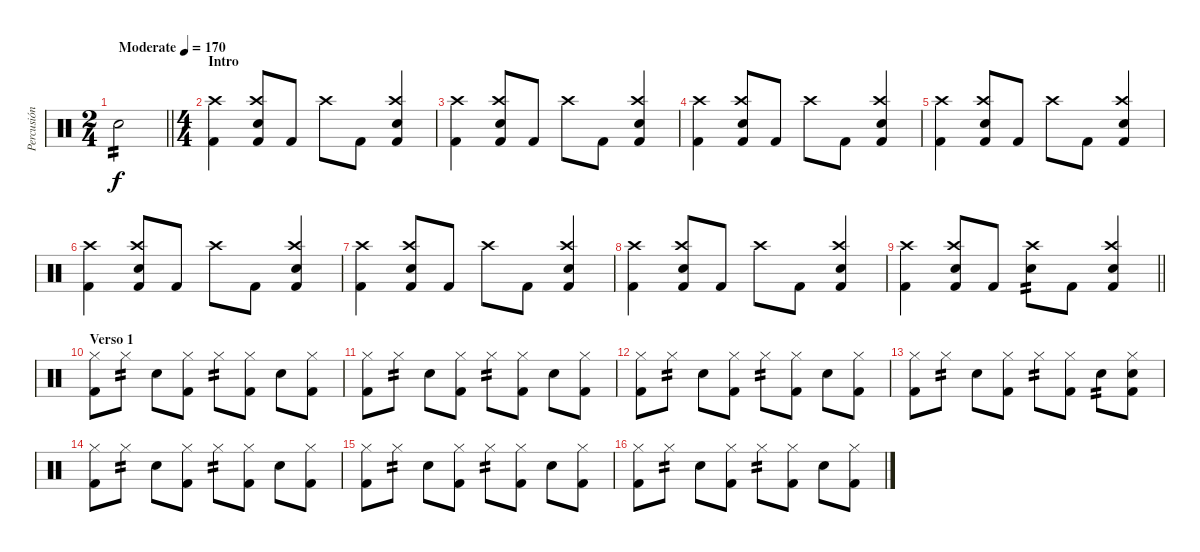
\track ("Percusión" "Percusión") {instrument percussion}
\staff {score}
\articulation defaults
\ts (2 4)
\tempo (170 "Moderate")
\clef neutral
\barLineRight lightlight
\ks c "Electric Snare (hit)".2{tp 2 dy f}
|
\ts (4 4)
\section ("" "Intro")
("Crash high (hit)" "Kick (hit) 2").4 ("Crash high (hit)" "Electric Snare (hit)" "Kick (hit) 2").8 "Kick (hit) 2".8 "Crash high (hit)".8 "Kick (hit) 2".8 ("Crash high (hit)" "Electric Snare (hit)" "Kick (hit) 2").4 |
("Crash high (hit)" "Kick (hit) 2").4 ("Crash high (hit)" "Electric Snare (hit)" "Kick (hit) 2").8 "Kick (hit) 2".8 "Crash high (hit)".8 "Kick (hit) 2".8 ("Crash high (hit)" "Electric Snare (hit)" "Kick (hit) 2").4 |
("Crash high (hit)" "Kick (hit) 2").4 ("Crash high (hit)" "Electric Snare (hit)" "Kick (hit) 2").8 "Kick (hit) 2".8 "Crash high (hit)".8 "Kick (hit) 2".8 ("Crash high (hit)" "Electric Snare (hit)" "Kick (hit) 2").4 |
("Crash high (hit)" "Kick (hit) 2").4 ("Crash high (hit)" "Electric Snare (hit)" "Kick (hit) 2").8 "Kick (hit) 2".8 "Crash high (hit)".8 "Kick (hit) 2".8 ("Crash high (hit)" "Electric Snare (hit)" "Kick (hit) 2").4 |
("Crash high (hit)" "Kick (hit) 2").4 ("Crash high (hit)" "Electric Snare (hit)" "Kick (hit) 2").8 "Kick (hit) 2".8 "Crash high (hit)".8 "Kick (hit) 2".8 ("Crash high (hit)" "Electric Snare (hit)" "Kick (hit) 2").4 |
("Crash high (hit)" "Kick (hit) 2").4 ("Crash high (hit)" "Electric Snare (hit)" "Kick (hit) 2").8 "Kick (hit) 2".8 "Crash high (hit)".8 "Kick (hit) 2".8 ("Crash high (hit)" "Electric Snare (hit)" "Kick (hit) 2").4 |
("Crash high (hit)" "Kick (hit) 2").4 ("Crash high (hit)" "Electric Snare (hit)" "Kick (hit) 2").8 "Kick (hit) 2".8 "Crash high (hit)".8 "Kick (hit) 2".8 ("Crash high (hit)" "Electric Snare (hit)" "Kick (hit) 2").4 |
\barLineRight lightlight
("Crash high (hit)" "Kick (hit) 2").4 ("Crash high (hit)" "Electric Snare (hit)" "Kick (hit) 2").8 "Kick (hit) 2".8 ("Crash high (hit)" "Electric Snare (hit)").8{tp 2} "Kick (hit) 2".8 ("Crash high (hit)" "Electric Snare (hit)" "Kick (hit) 2").4 |
\section ("" "Verso 1")
("Hi-Hat (closed)" "Kick (hit) 2").8 "Hi-Hat (closed)".8{tp 2} "Electric Snare (hit)".8 ("Hi-Hat (closed)" "Kick (hit) 2").8 "Hi-Hat (closed)".8{tp 2} ("Hi-Hat (closed)" "Kick (hit) 2").8 "Electric Snare (hit)".8 ("Hi-Hat (closed)" "Kick (hit) 2").8 |
("Hi-Hat (closed)" "Kick (hit) 2").8 "Hi-Hat (closed)".8{tp 2} "Electric Snare (hit)".8 ("Hi-Hat (closed)" "Kick (hit) 2").8 "Hi-Hat (closed)".8{tp 2} ("Hi-Hat (closed)" "Kick (hit) 2").8 "Electric Snare (hit)".8 ("Hi-Hat (closed)" "Kick (hit) 2").8 |
("Hi-Hat (closed)" "Kick (hit) 2").8 "Hi-Hat (closed)".8{tp 2} "Electric Snare (hit)".8 ("Hi-Hat (closed)" "Kick (hit) 2").8 "Hi-Hat (closed)".8{tp 2} ("Hi-Hat (closed)" "Kick (hit) 2").8 "Electric Snare (hit)".8 ("Hi-Hat (closed)" "Kick (hit) 2").8 |
("Hi-Hat (closed)" "Kick (hit) 2").8 "Hi-Hat (closed)".8{tp 2} "Electric Snare (hit)".8 ("Hi-Hat (closed)" "Kick (hit) 2").8 "Hi-Hat (closed)".8{tp 2} ("Hi-Hat (closed)" "Kick (hit) 2").8 "Electric Snare (hit)".8{tp 2} ("Hi-Hat (closed)" "Electric Snare (hit)" "Kick (hit) 2").8 |
("Hi-Hat (closed)" "Kick (hit) 2").8 "Hi-Hat (closed)".8{tp 2} "Electric Snare (hit)".8 ("Hi-Hat (closed)" "Kick (hit) 2").8 "Hi-Hat (closed)".8{tp 2} ("Hi-Hat (closed)" "Kick (hit) 2").8 "Electric Snare (hit)".8 ("Hi-Hat (closed)" "Kick (hit) 2").8 |
("Hi-Hat (closed)" "Kick (hit) 2").8 "Hi-Hat (closed)".8{tp 2} "Electric Snare (hit)".8 ("Hi-Hat (closed)" "Kick (hit) 2").8 "Hi-Hat (closed)".8{tp 2} ("Hi-Hat (closed)" "Kick (hit) 2").8 "Electric Snare (hit)".8 ("Hi-Hat (closed)" "Kick (hit) 2").8 |
("Hi-Hat (closed)" "Kick (hit) 2").8 "Hi-Hat (closed)".8{tp 2} "Electric Snare (hit)".8 ("Hi-Hat (closed)" "Kick (hit) 2").8 "Hi-Hat (closed)".8{tp 2} ("Hi-Hat (closed)" "Kick (hit) 2").8 "Electric Snare (hit)".8 ("Hi-Hat (closed)" "Kick (hit) 2").8
